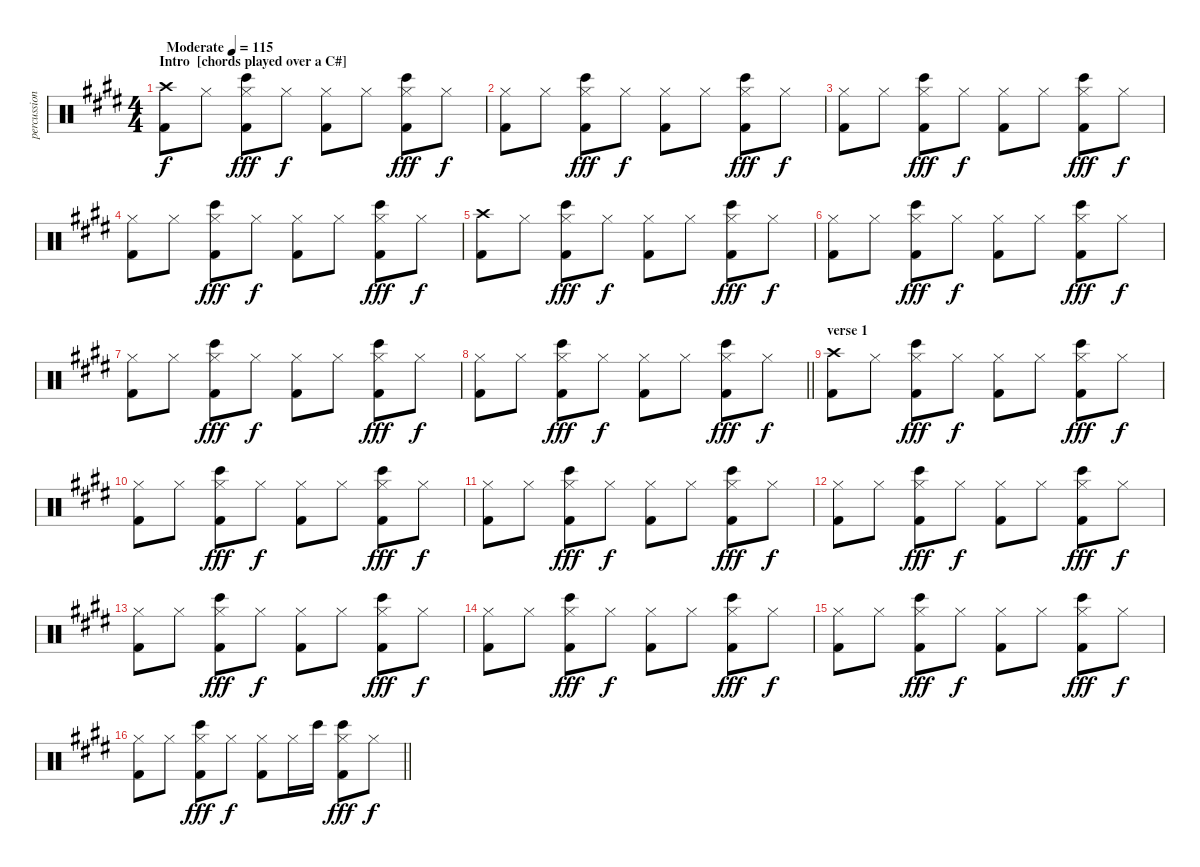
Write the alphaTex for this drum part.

\track ("percussion" "percussion") {instrument percussion}
\staff {score}
\articulation defaults
\ts (4 4)
\section ("" "Intro  [chords played over a C#]")
\tempo (115 "Moderate")
\clef neutral
\ks c#minor
("Crash high (hit)" "Kick (hit) 2").8{dy f} "Hi-Hat (closed)".8 ("Bongo High (hit)" "Hi-Hat (closed)" "Kick (hit) 2").8{dy fff} "Hi-Hat (closed)".8{dy f} ("Hi-Hat (closed)" "Kick (hit) 2").8 "Hi-Hat (closed)".8 ("Bongo High (hit)" "Hi-Hat (closed)" "Kick (hit) 2").8{dy fff} "Hi-Hat (closed)".8{dy f} |
("Hi-Hat (closed)" "Kick (hit) 2").8 "Hi-Hat (closed)".8 ("Bongo High (hit)" "Hi-Hat (closed)" "Kick (hit) 2").8{dy fff} "Hi-Hat (closed)".8{dy f} ("Hi-Hat (closed)" "Kick (hit) 2").8 "Hi-Hat (closed)".8 ("Bongo High (hit)" "Hi-Hat (closed)" "Kick (hit) 2").8{dy fff} "Hi-Hat (closed)".8{dy f} |
("Hi-Hat (closed)" "Kick (hit) 2").8 "Hi-Hat (closed)".8 ("Bongo High (hit)" "Hi-Hat (closed)" "Kick (hit) 2").8{dy fff} "Hi-Hat (closed)".8{dy f} ("Hi-Hat (closed)" "Kick (hit) 2").8 "Hi-Hat (closed)".8 ("Bongo High (hit)" "Hi-Hat (closed)" "Kick (hit) 2").8{dy fff} "Hi-Hat (closed)".8{dy f} |
("Hi-Hat (closed)" "Kick (hit) 2").8 "Hi-Hat (closed)".8 ("Bongo High (hit)" "Hi-Hat (closed)" "Kick (hit) 2").8{dy fff} "Hi-Hat (closed)".8{dy f} ("Hi-Hat (closed)" "Kick (hit) 2").8 "Hi-Hat (closed)".8 ("Bongo High (hit)" "Hi-Hat (closed)" "Kick (hit) 2").8{dy fff} "Hi-Hat (closed)".8{dy f} |
("Crash high (hit)" "Kick (hit) 2").8 "Hi-Hat (closed)".8 ("Bongo High (hit)" "Hi-Hat (closed)" "Kick (hit) 2").8{dy fff} "Hi-Hat (closed)".8{dy f} ("Hi-Hat (closed)" "Kick (hit) 2").8 "Hi-Hat (closed)".8 ("Bongo High (hit)" "Hi-Hat (closed)" "Kick (hit) 2").8{dy fff} "Hi-Hat (closed)".8{dy f} |
("Hi-Hat (closed)" "Kick (hit) 2").8 "Hi-Hat (closed)".8 ("Bongo High (hit)" "Hi-Hat (closed)" "Kick (hit) 2").8{dy fff} "Hi-Hat (closed)".8{dy f} ("Hi-Hat (closed)" "Kick (hit) 2").8 "Hi-Hat (closed)".8 ("Bongo High (hit)" "Hi-Hat (closed)" "Kick (hit) 2").8{dy fff} "Hi-Hat (closed)".8{dy f} |
("Hi-Hat (closed)" "Kick (hit) 2").8 "Hi-Hat (closed)".8 ("Bongo High (hit)" "Hi-Hat (closed)" "Kick (hit) 2").8{dy fff} "Hi-Hat (closed)".8{dy f} ("Hi-Hat (closed)" "Kick (hit) 2").8 "Hi-Hat (closed)".8 ("Bongo High (hit)" "Hi-Hat (closed)" "Kick (hit) 2").8{dy fff} "Hi-Hat (closed)".8{dy f} |
\barLineRight lightlight
("Hi-Hat (closed)" "Kick (hit) 2").8 "Hi-Hat (closed)".8 ("Bongo High (hit)" "Hi-Hat (closed)" "Kick (hit) 2").8{dy fff} "Hi-Hat (closed)".8{dy f} ("Hi-Hat (closed)" "Kick (hit) 2").8 "Hi-Hat (closed)".8 ("Bongo High (hit)" "Hi-Hat (closed)" "Kick (hit) 2").8{dy fff} "Hi-Hat (closed)".8{dy f} |
\section ("" "verse 1")
("Crash high (hit)" "Kick (hit) 2").8 "Hi-Hat (closed)".8 ("Bongo High (hit)" "Hi-Hat (closed)" "Kick (hit) 2").8{dy fff} "Hi-Hat (closed)".8{dy f} ("Hi-Hat (closed)" "Kick (hit) 2").8 "Hi-Hat (closed)".8 ("Bongo High (hit)" "Hi-Hat (closed)" "Kick (hit) 2").8{dy fff} "Hi-Hat (closed)".8{dy f} |
("Hi-Hat (closed)" "Kick (hit) 2").8 "Hi-Hat (closed)".8 ("Bongo High (hit)" "Hi-Hat (closed)" "Kick (hit) 2").8{dy fff} "Hi-Hat (closed)".8{dy f} ("Hi-Hat (closed)" "Kick (hit) 2").8 "Hi-Hat (closed)".8 ("Bongo High (hit)" "Hi-Hat (closed)" "Kick (hit) 2").8{dy fff} "Hi-Hat (closed)".8{dy f} |
("Hi-Hat (closed)" "Kick (hit) 2").8 "Hi-Hat (closed)".8 ("Bongo High (hit)" "Hi-Hat (closed)" "Kick (hit) 2").8{dy fff} "Hi-Hat (closed)".8{dy f} ("Hi-Hat (closed)" "Kick (hit) 2").8 "Hi-Hat (closed)".8 ("Bongo High (hit)" "Hi-Hat (closed)" "Kick (hit) 2").8{dy fff} "Hi-Hat (closed)".8{dy f} |
("Hi-Hat (closed)" "Kick (hit) 2").8 "Hi-Hat (closed)".8 ("Bongo High (hit)" "Hi-Hat (closed)" "Kick (hit) 2").8{dy fff} "Hi-Hat (closed)".8{dy f} ("Hi-Hat (closed)" "Kick (hit) 2").8 "Hi-Hat (closed)".8 ("Bongo High (hit)" "Hi-Hat (closed)" "Kick (hit) 2").8{dy fff} "Hi-Hat (closed)".8{dy f} |
("Hi-Hat (closed)" "Kick (hit) 2").8 "Hi-Hat (closed)".8 ("Bongo High (hit)" "Hi-Hat (closed)" "Kick (hit) 2").8{dy fff} "Hi-Hat (closed)".8{dy f} ("Hi-Hat (closed)" "Kick (hit) 2").8 "Hi-Hat (closed)".8 ("Bongo High (hit)" "Hi-Hat (closed)" "Kick (hit) 2").8{dy fff} "Hi-Hat (closed)".8{dy f} |
("Hi-Hat (closed)" "Kick (hit) 2").8 "Hi-Hat (closed)".8 ("Bongo High (hit)" "Hi-Hat (closed)" "Kick (hit) 2").8{dy fff} "Hi-Hat (closed)".8{dy f} ("Hi-Hat (closed)" "Kick (hit) 2").8 "Hi-Hat (closed)".8 ("Bongo High (hit)" "Hi-Hat (closed)" "Kick (hit) 2").8{dy fff} "Hi-Hat (closed)".8{dy f} |
("Hi-Hat (closed)" "Kick (hit) 2").8 "Hi-Hat (closed)".8 ("Bongo High (hit)" "Hi-Hat (closed)" "Kick (hit) 2").8{dy fff} "Hi-Hat (closed)".8{dy f} ("Hi-Hat (closed)" "Kick (hit) 2").8 "Hi-Hat (closed)".8 ("Bongo High (hit)" "Hi-Hat (closed)" "Kick (hit) 2").8{dy fff} "Hi-Hat (closed)".8{dy f} |
\barLineRight lightlight
("Hi-Hat (closed)" "Kick (hit) 2").8 "Hi-Hat (closed)".8 ("Bongo High (hit)" "Hi-Hat (closed)" "Kick (hit) 2").8{dy fff} "Hi-Hat (closed)".8{dy f} ("Hi-Hat (closed)" "Kick (hit) 2").8 "Hi-Hat (closed)".16 "Bongo High (hit)".16 ("Bongo High (hit)" "Hi-Hat (closed)" "Kick (hit) 2").8{dy fff} "Hi-Hat (closed)".8{dy f}
